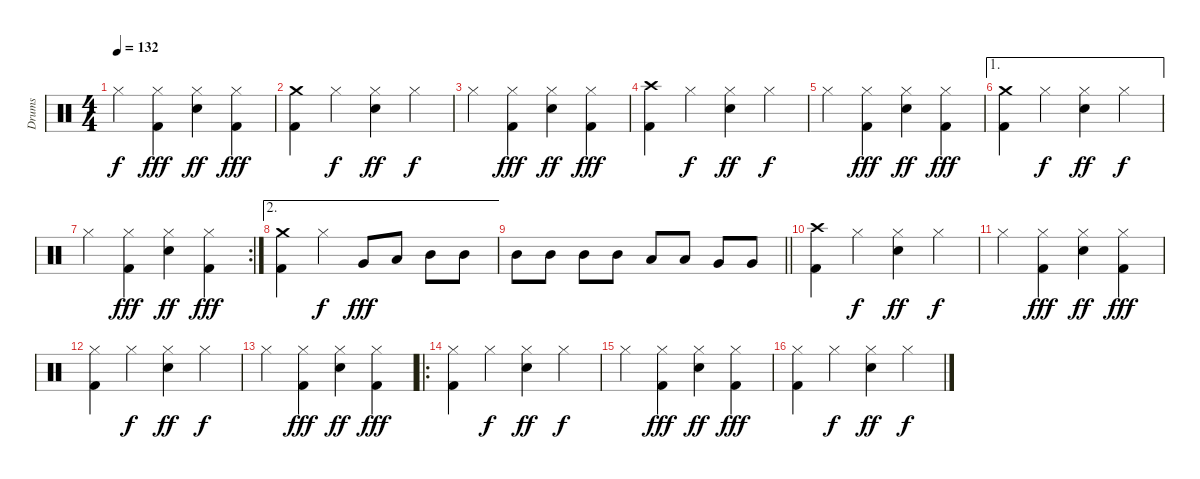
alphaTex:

\track ("Drums" "Drums") {instrument percussion}
\staff {score}
\articulation defaults
\ts (4 4)
\tempo 132
\clef neutral
\ks c "Hi-Hat (closed)".4{dy f}
("Hi-Hat (closed)" "Kick (hit) 2").4{dy fff} ("Hi-Hat (closed)" "Electric Snare (hit)").4{dy ff} ("Hi-Hat (closed)" "Kick (hit) 2").4{dy fff} |
("Crash medium (hit)" "Kick (hit) 2").4 "Hi-Hat (closed)".4{dy f} ("Hi-Hat (closed)" "Electric Snare (hit)").4{dy ff} "Hi-Hat (closed)".4{dy f} |
"Hi-Hat (closed)".4 ("Hi-Hat (closed)" "Kick (hit) 2").4{dy fff} ("Hi-Hat (closed)" "Electric Snare (hit)").4{dy ff} ("Hi-Hat (closed)" "Kick (hit) 2").4{dy fff} |
("Crash high (hit)" "Kick (hit) 2").4 "Hi-Hat (closed)".4{dy f} ("Hi-Hat (closed)" "Electric Snare (hit)").4{dy ff} "Hi-Hat (closed)".4{dy f} |
"Hi-Hat (closed)".4 ("Hi-Hat (closed)" "Kick (hit) 2").4{dy fff} ("Hi-Hat (closed)" "Electric Snare (hit)").4{dy ff} ("Hi-Hat (closed)" "Kick (hit) 2").4{dy fff} |
\ae 1
("Crash medium (hit)" "Kick (hit) 2").4 "Hi-Hat (closed)".4{dy f} ("Hi-Hat (closed)" "Electric Snare (hit)").4{dy ff} "Hi-Hat (closed)".4{dy f} |
\rc 2 "Hi-Hat (closed)".4
("Hi-Hat (closed)" "Kick (hit) 2").4{dy fff} ("Hi-Hat (closed)" "Electric Snare (hit)").4{dy ff} ("Hi-Hat (closed)" "Kick (hit) 2").4{dy fff} |
\ae 2
("Crash medium (hit)" "Kick (hit) 2").4 "Hi-Hat (closed)".4{dy f} "Very Low Tom (hit)".8{dy fff} "Low Tom (hit)".8 "Mid Tom (hit)".8 "Mid Tom (hit)".8 |
\barLineRight lightlight "Mid Tom (hit)".8 "Mid Tom (hit)".8 "Mid Tom (hit)".8 "Mid Tom (hit)".8 "Low Tom (hit)".8 "Low Tom (hit)".8 "Very Low Tom (hit)".8 "Very Low Tom (hit)".8
|
("Crash high (hit)" "Kick (hit) 2").4 "Hi-Hat (closed)".4{dy f} ("Hi-Hat (closed)" "Electric Snare (hit)").4{dy ff} "Hi-Hat (closed)".4{dy f} |
"Hi-Hat (closed)".4 ("Hi-Hat (closed)" "Kick (hit) 2").4{dy fff} ("Hi-Hat (closed)" "Electric Snare (hit)").4{dy ff} ("Hi-Hat (closed)" "Kick (hit) 2").4{dy fff} |
("Hi-Hat (closed)" "Kick (hit) 2").4 "Hi-Hat (closed)".4{dy f} ("Hi-Hat (closed)" "Electric Snare (hit)").4{dy ff} "Hi-Hat (closed)".4{dy f} |
"Hi-Hat (closed)".4 ("Hi-Hat (closed)" "Kick (hit) 2").4{dy fff} ("Hi-Hat (closed)" "Electric Snare (hit)").4{dy ff} ("Hi-Hat (closed)" "Kick (hit) 2").4{dy fff} |
\ro
("Hi-Hat (closed)" "Kick (hit) 2").4 "Hi-Hat (closed)".4{dy f} ("Hi-Hat (closed)" "Electric Snare (hit)").4{dy ff} "Hi-Hat (closed)".4{dy f} |
"Hi-Hat (closed)".4 ("Hi-Hat (closed)" "Kick (hit) 2").4{dy fff} ("Hi-Hat (closed)" "Electric Snare (hit)").4{dy ff} ("Hi-Hat (closed)" "Kick (hit) 2").4{dy fff} |
("Hi-Hat (closed)" "Kick (hit) 2").4 "Hi-Hat (closed)".4{dy f} ("Hi-Hat (closed)" "Electric Snare (hit)").4{dy ff} "Hi-Hat (closed)".4{dy f}
